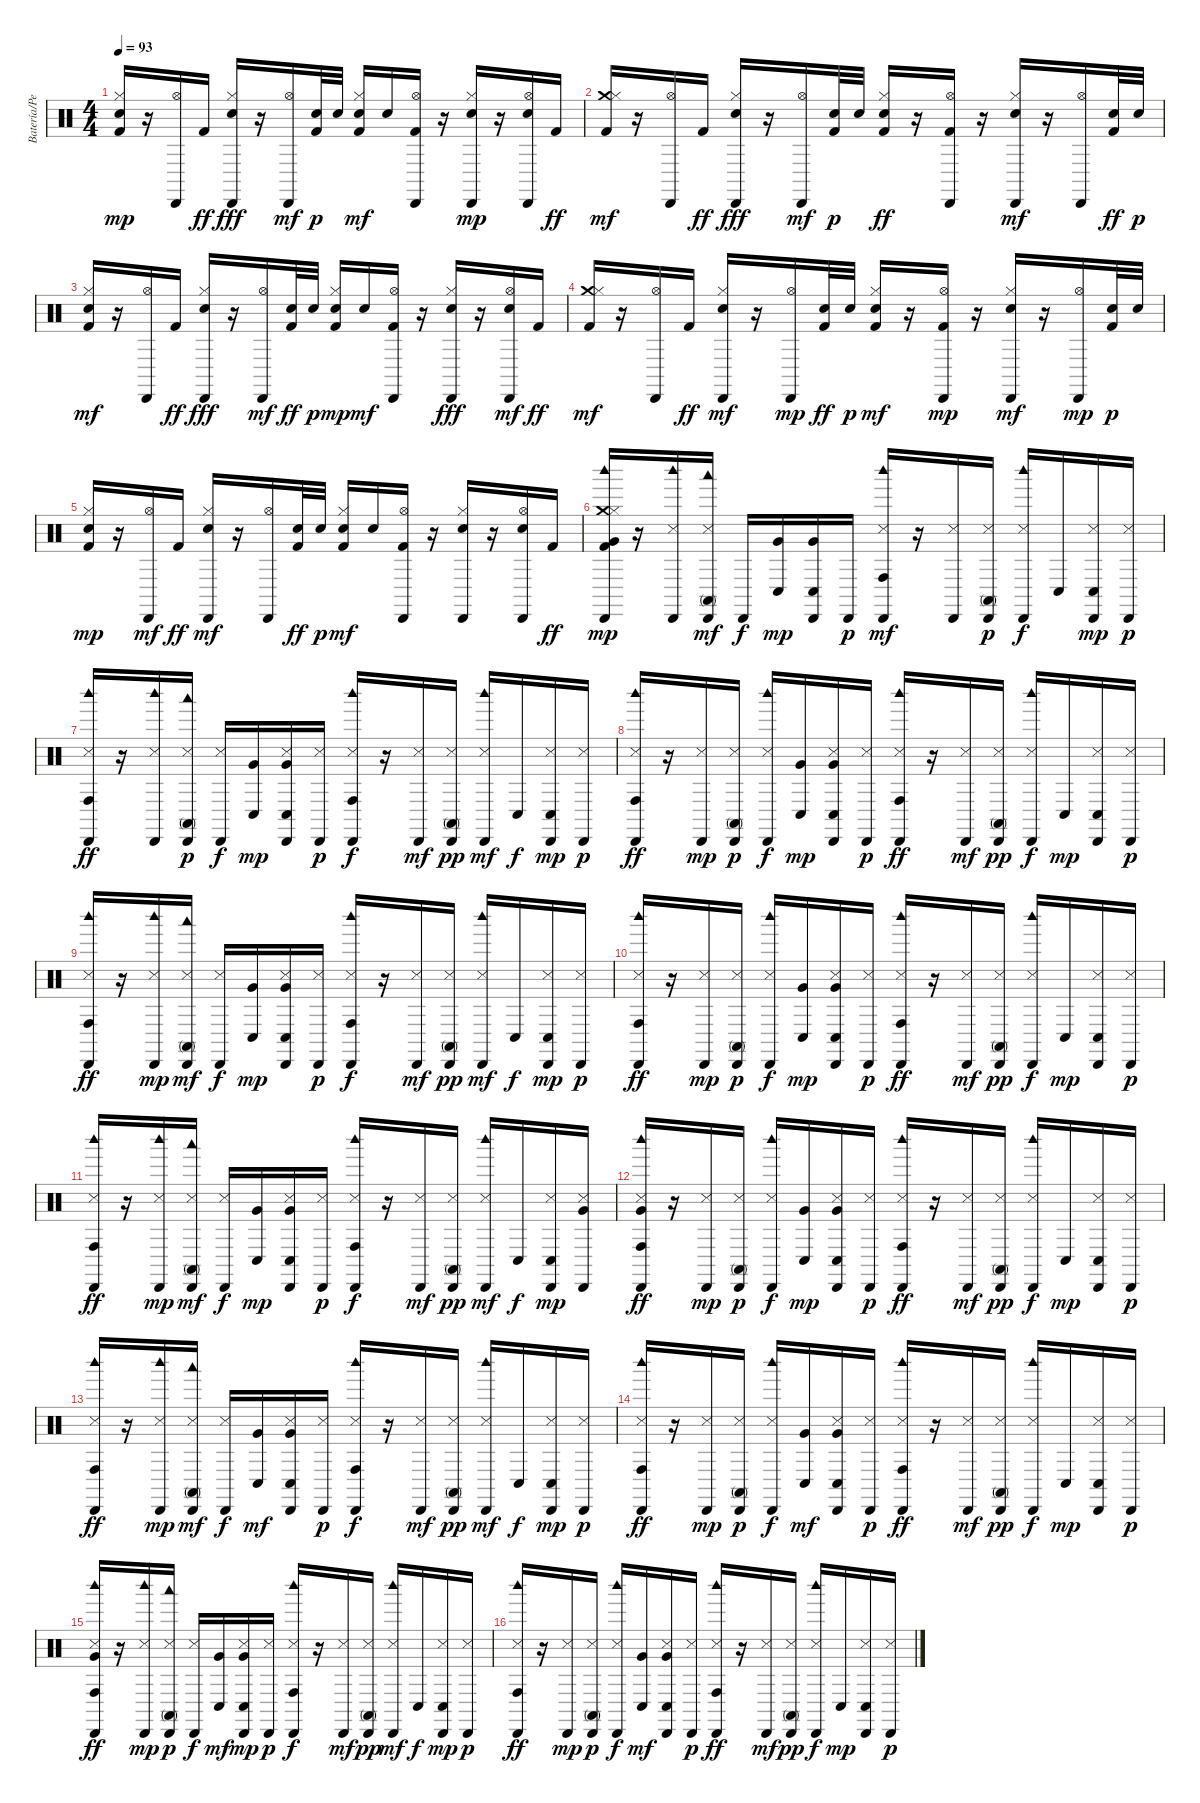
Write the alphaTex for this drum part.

\track ("Batería/Percusión" "Batería/Pe") {instrument percussion}
\staff {score}
\articulation defaults
\ts (4 4)
\tempo 93
\clef neutral
\ks c
("Hi-Hat (closed)" "Kick (hit) 2" "Electric Snare (hit)").16{dy mp} r.16 ("Hi-Hat (open)" "Cabasa (hit)").16 "Kick (hit) 2".16{dy ff} ("Cabasa (hit)" "Hi-Hat (closed)" "Electric Snare (hit)").16{dy fff} r.16 ("Cabasa (hit)" "Hi-Hat (open)").16{dy mf} ("Kick (hit) 2" "Electric Snare (hit)").32{dy p} "Electric Snare (hit)".32 ("Kick (hit) 2" "Electric Snare (hit)" "Hi-Hat (closed)").16{dy mf} "Electric Snare (hit)".16 ("Cabasa (hit)" "Kick (hit) 2" "Hi-Hat (open)").16 r.16 ("Electric Snare (hit)" "Hi-Hat (closed)" "Cabasa (hit)").16{dy mp} r.16 ("Electric Snare (hit)" "Cabasa (hit)" "Hi-Hat (open)").16 "Kick (hit) 2".16{dy ff} |
("Crash medium (hit)" "Kick (hit) 2" "Hi-Hat (closed)").16{dy mf} r.16 ("Hi-Hat (open)" "Cabasa (hit)").16 "Kick (hit) 2".16{dy ff} ("Hi-Hat (closed)" "Cabasa (hit)" "Electric Snare (hit)").16{dy fff} r.16 ("Cabasa (hit)" "Hi-Hat (open)").16{dy mf} ("Kick (hit) 2" "Electric Snare (hit)").32{dy p} "Electric Snare (hit)".32 ("Electric Snare (hit)" "Hi-Hat (closed)" "Kick (hit) 2").16{dy ff} r.16 ("Hi-Hat (open)" "Cabasa (hit)" "Kick (hit) 2").16 r.16 ("Electric Snare (hit)" "Cabasa (hit)" "Hi-Hat (closed)").16{dy mf} r.16 ("Hi-Hat (open)" "Cabasa (hit)").16 ("Electric Snare (hit)" "Kick (hit) 2").32{dy ff} "Electric Snare (hit)".32{dy p} |
("Kick (hit) 2" "Electric Snare (hit)" "Hi-Hat (closed)").16{dy mf} r.16 ("Hi-Hat (open)" "Cabasa (hit)").16 "Kick (hit) 2".16{dy ff} ("Cabasa (hit)" "Hi-Hat (closed)" "Electric Snare (hit)").16{dy fff} r.16 ("Cabasa (hit)" "Hi-Hat (open)").16{dy mf} ("Electric Snare (hit)" "Kick (hit) 2").32{dy ff} "Electric Snare (hit)".32{dy p} ("Kick (hit) 2" "Hi-Hat (closed)" "Electric Snare (hit)").16{dy mp} "Electric Snare (hit)".16{dy mf} ("Kick (hit) 2" "Cabasa (hit)" "Hi-Hat (open)").16 r.16 ("Cabasa (hit)" "Hi-Hat (closed)" "Electric Snare (hit)").16{dy fff} r.16 ("Electric Snare (hit)" "Hi-Hat (open)" "Cabasa (hit)").16{dy mf} "Kick (hit) 2".16{dy ff} |
("Kick (hit) 2" "Crash medium (hit)" "Hi-Hat (closed)").16{dy mf} r.16 ("Hi-Hat (open)" "Cabasa (hit)").16 "Kick (hit) 2".16{dy ff} ("Electric Snare (hit)" "Hi-Hat (closed)" "Cabasa (hit)").16{dy mf} r.16 ("Cabasa (hit)" "Hi-Hat (open)").16{dy mp} ("Electric Snare (hit)" "Kick (hit) 2").32{dy ff} "Electric Snare (hit)".32{dy p} ("Kick (hit) 2" "Electric Snare (hit)" "Hi-Hat (closed)").16{dy mf} r.16 ("Kick (hit) 2" "Cabasa (hit)" "Hi-Hat (open)").16{dy mp} r.16 ("Electric Snare (hit)" "Cabasa (hit)" "Hi-Hat (closed)").16{dy mf} r.16 ("Cabasa (hit)" "Hi-Hat (open)").16{dy mp} ("Kick (hit) 2" "Electric Snare (hit)").32{dy p} "Electric Snare (hit)".32 |
("Hi-Hat (closed)" "Kick (hit) 2" "Electric Snare (hit)").16{dy mp} r.16 ("Hi-Hat (open)" "Cabasa (hit)").16{dy mf} "Kick (hit) 2".16{dy ff} ("Cabasa (hit)" "Electric Snare (hit)" "Hi-Hat (closed)").16{dy mf} r.16 ("Hi-Hat (open)" "Cabasa (hit)").16 ("Electric Snare (hit)" "Kick (hit) 2").32{dy ff} "Electric Snare (hit)".32{dy p} ("Electric Snare (hit)" "Kick (hit) 2" "Hi-Hat (closed)").16{dy mf} "Electric Snare (hit)".16 ("Kick (hit) 2" "Hi-Hat (open)" "Cabasa (hit)").16 r.16 ("Electric Snare (hit)" "Hi-Hat (closed)" "Cabasa (hit)").16 r.16 ("Electric Snare (hit)" "Hi-Hat (open)" "Cabasa (hit)").16 "Kick (hit) 2".16{dy ff} |
("Cabasa (hit)" "Woodblock high (hit)" "Kick (hit) 2" "Crash medium (hit)" "Hi-Hat (closed)" "Very Low Tom (hit)").16{dy mp} r.16 ("Cabasa (hit)" "Woodblock high (hit)" "Snare (side stick) 3").16 ("Cabasa (hit)" "Woodblock low (hit)" "Snare (side stick) 3" "Conga high (mute)").16{dy mf} "Cabasa (hit)".16{dy f} ("Conga low (hit)" "Very Low Tom (hit)").16{dy mp} ("Cabasa (hit)" "Conga low (hit)" "Very Low Tom (hit)").16 "Cabasa (hit)".16{dy p} ("Woodblock high (hit)" "Cabasa (hit)" "Snare (side stick) 3" "Conga high (hit)").16{dy mf} r.16 ("Snare (side stick) 3" "Cabasa (hit)").16 ("Cabasa (hit)" "Snare (side stick) 3" "Conga high (mute)").16{dy p} ("Woodblock high (hit)" "Cabasa (hit)" "Snare (side stick) 3").16{dy f} "Conga low (hit)".16 ("Snare (side stick) 3" "Conga low (hit)" "Cabasa (hit)").16{dy mp} ("Snare (side stick) 3" "Cabasa (hit)").16{dy p} |
("Woodblock high (hit)" "Conga high (hit)" "Snare (side stick) 3" "Cabasa (hit)").16{dy ff} r.16 ("Snare (side stick) 3" "Cabasa (hit)" "Woodblock high (hit)").16 ("Woodblock low (hit)" "Snare (side stick) 3" "Cabasa (hit)" "Conga high (mute)").16{dy p} ("Cabasa (hit)" "Snare (side stick) 3").16{dy f} ("Very Low Tom (hit)" "Conga low (hit)").16{dy mp} ("Snare (side stick) 3" "Conga low (hit)" "Very Low Tom (hit)" "Cabasa (hit)").16 ("Cabasa (hit)" "Snare (side stick) 3").16{dy p} ("Woodblock high (hit)" "Snare (side stick) 3" "Conga high (hit)" "Cabasa (hit)").16{dy f} r.16 ("Cabasa (hit)" "Snare (side stick) 3").16{dy mf} ("Conga high (mute)" "Snare (side stick) 3" "Cabasa (hit)").16{dy pp} ("Woodblock high (hit)" "Cabasa (hit)" "Snare (side stick) 3").16{dy mf} "Conga low (hit)".16{dy f} ("Snare (side stick) 3" "Conga low (hit)" "Cabasa (hit)").16{dy mp} ("Snare (side stick) 3" "Cabasa (hit)").16{dy p} |
("Woodblock high (hit)" "Snare (side stick) 3" "Cabasa (hit)" "Conga high (hit)").16{dy ff} r.16 ("Snare (side stick) 3" "Cabasa (hit)").16{dy mp} ("Conga high (mute)" "Snare (side stick) 3" "Cabasa (hit)").16{dy p} ("Snare (side stick) 3" "Woodblock high (hit)" "Cabasa (hit)").16{dy f} ("Very Low Tom (hit)" "Conga low (hit)").16{dy mp} ("Conga low (hit)" "Cabasa (hit)" "Very Low Tom (hit)" "Snare (side stick) 3").16 ("Snare (side stick) 3" "Cabasa (hit)").16{dy p} ("Woodblock high (hit)" "Snare (side stick) 3" "Cabasa (hit)" "Conga high (hit)").16{dy ff} r.16 ("Snare (side stick) 3" "Cabasa (hit)").16{dy mf} ("Conga high (mute)" "Snare (side stick) 3" "Cabasa (hit)").16{dy pp} ("Cabasa (hit)" "Snare (side stick) 3" "Woodblock high (hit)").16{dy f} "Conga low (hit)".16{dy mp} ("Snare (side stick) 3" "Conga low (hit)" "Cabasa (hit)").16 ("Snare (side stick) 3" "Cabasa (hit)").16{dy p} |
("Snare (side stick) 3" "Woodblock high (hit)" "Cabasa (hit)" "Conga high (hit)").16{dy ff} r.16 ("Woodblock high (hit)" "Snare (side stick) 3" "Cabasa (hit)").16{dy mp} ("Snare (side stick) 3" "Conga high (mute)" "Cabasa (hit)" "Woodblock low (hit)").16{dy mf} ("Cabasa (hit)" "Snare (side stick) 3").16{dy f} ("Very Low Tom (hit)" "Conga low (hit)").16{dy mp} ("Conga low (hit)" "Snare (side stick) 3" "Cabasa (hit)" "Very Low Tom (hit)").16 ("Snare (side stick) 3" "Cabasa (hit)").16{dy p} ("Cabasa (hit)" "Snare (side stick) 3" "Conga high (hit)" "Woodblock high (hit)").16{dy f} r.16 ("Snare (side stick) 3" "Cabasa (hit)").16{dy mf} ("Cabasa (hit)" "Snare (side stick) 3" "Conga high (mute)").16{dy pp} ("Cabasa (hit)" "Woodblock high (hit)" "Snare (side stick) 3").16{dy mf} "Conga low (hit)".16{dy f} ("Conga low (hit)" "Snare (side stick) 3" "Cabasa (hit)").16{dy mp} ("Cabasa (hit)" "Snare (side stick) 3").16{dy p} |
("Snare (side stick) 3" "Cabasa (hit)" "Conga high (hit)" "Woodblock high (hit)").16{dy ff} r.16 ("Cabasa (hit)" "Snare (side stick) 3").16{dy mp} ("Conga high (mute)" "Snare (side stick) 3" "Cabasa (hit)").16{dy p} ("Cabasa (hit)" "Snare (side stick) 3" "Woodblock high (hit)").16{dy f} ("Conga low (hit)" "Very Low Tom (hit)").16{dy mp} ("Conga low (hit)" "Cabasa (hit)" "Very Low Tom (hit)" "Snare (side stick) 3").16 ("Cabasa (hit)" "Snare (side stick) 3").16{dy p} ("Cabasa (hit)" "Snare (side stick) 3" "Woodblock high (hit)" "Conga high (hit)").16{dy ff} r.16 ("Cabasa (hit)" "Snare (side stick) 3").16{dy mf} ("Cabasa (hit)" "Snare (side stick) 3" "Conga high (mute)").16{dy pp} ("Snare (side stick) 3" "Woodblock high (hit)" "Cabasa (hit)").16{dy f} "Conga low (hit)".16{dy mp} ("Snare (side stick) 3" "Cabasa (hit)" "Conga low (hit)").16 ("Cabasa (hit)" "Snare (side stick) 3").16{dy p} |
("Conga high (hit)" "Cabasa (hit)" "Woodblock high (hit)" "Snare (side stick) 3").16{dy ff} r.16 ("Cabasa (hit)" "Woodblock high (hit)" "Snare (side stick) 3").16{dy mp} ("Conga high (mute)" "Snare (side stick) 3" "Cabasa (hit)" "Woodblock low (hit)").16{dy mf} ("Snare (side stick) 3" "Cabasa (hit)").16{dy f} ("Conga low (hit)" "Very Low Tom (hit)").16{dy mp} ("Very Low Tom (hit)" "Snare (side stick) 3" "Cabasa (hit)" "Conga low (hit)").16 ("Snare (side stick) 3" "Cabasa (hit)").16{dy p} ("Cabasa (hit)" "Snare (side stick) 3" "Woodblock high (hit)" "Conga high (hit)").16{dy f} r.16 ("Snare (side stick) 3" "Cabasa (hit)").16{dy mf} ("Cabasa (hit)" "Conga high (mute)" "Snare (side stick) 3").16{dy pp} ("Cabasa (hit)" "Woodblock high (hit)" "Snare (side stick) 3").16{dy mf} "Conga low (hit)".16{dy f} ("Cabasa (hit)" "Snare (side stick) 3" "Conga low (hit)").16{dy mp} ("Snare (side stick) 3" "Cabasa (hit)" "Very Low Tom (hit)").16 |
("Woodblock high (hit)" "Very Low Tom (hit)" "Cabasa (hit)" "Snare (side stick) 3" "Conga high (hit)").16{dy ff} r.16 ("Cabasa (hit)" "Snare (side stick) 3").16{dy mp} ("Conga high (mute)" "Cabasa (hit)" "Snare (side stick) 3").16{dy p} ("Woodblock high (hit)" "Cabasa (hit)" "Snare (side stick) 3").16{dy f} ("Very Low Tom (hit)" "Conga low (hit)").16{dy mp} ("Cabasa (hit)" "Very Low Tom (hit)" "Conga low (hit)" "Snare (side stick) 3").16 ("Cabasa (hit)" "Snare (side stick) 3").16{dy p} ("Woodblock high (hit)" "Conga high (hit)" "Snare (side stick) 3" "Cabasa (hit)").16{dy ff} r.16 ("Cabasa (hit)" "Snare (side stick) 3").16{dy mf} ("Snare (side stick) 3" "Conga high (mute)" "Cabasa (hit)").16{dy pp} ("Cabasa (hit)" "Snare (side stick) 3" "Woodblock high (hit)").16{dy f} "Conga low (hit)".16{dy mp} ("Conga low (hit)" "Cabasa (hit)" "Snare (side stick) 3").16 ("Cabasa (hit)" "Snare (side stick) 3").16{dy p} |
("Cabasa (hit)" "Conga high (hit)" "Woodblock high (hit)" "Snare (side stick) 3").16{dy ff} r.16 ("Woodblock high (hit)" "Snare (side stick) 3" "Cabasa (hit)").16{dy mp} ("Snare (side stick) 3" "Conga high (mute)" "Cabasa (hit)" "Woodblock low (hit)").16{dy mf} ("Snare (side stick) 3" "Cabasa (hit)").16{dy f} ("Conga low (hit)" "Very Low Tom (hit)").16{dy mf} ("Snare (side stick) 3" "Conga low (hit)" "Cabasa (hit)" "Very Low Tom (hit)").16 ("Snare (side stick) 3" "Cabasa (hit)").16{dy p} ("Conga high (hit)" "Cabasa (hit)" "Woodblock high (hit)" "Snare (side stick) 3").16{dy f} r.16 ("Cabasa (hit)" "Snare (side stick) 3").16{dy mf} ("Cabasa (hit)" "Conga high (mute)" "Snare (side stick) 3").16{dy pp} ("Cabasa (hit)" "Snare (side stick) 3" "Woodblock high (hit)").16{dy mf} "Conga low (hit)".16{dy f} ("Conga low (hit)" "Snare (side stick) 3" "Cabasa (hit)").16{dy mp} ("Cabasa (hit)" "Snare (side stick) 3").16{dy p} |
("Cabasa (hit)" "Woodblock high (hit)" "Snare (side stick) 3" "Conga high (hit)").16{dy ff} r.16 ("Cabasa (hit)" "Snare (side stick) 3").16{dy mp} ("Cabasa (hit)" "Conga high (mute)" "Snare (side stick) 3").16{dy p} ("Woodblock high (hit)" "Cabasa (hit)" "Snare (side stick) 3").16{dy f} ("Conga low (hit)" "Very Low Tom (hit)").16{dy mf} ("Cabasa (hit)" "Very Low Tom (hit)" "Snare (side stick) 3" "Conga low (hit)").16 ("Snare (side stick) 3" "Cabasa (hit)").16{dy p} ("Woodblock high (hit)" "Cabasa (hit)" "Snare (side stick) 3" "Conga high (hit)").16{dy ff} r.16 ("Snare (side stick) 3" "Cabasa (hit)").16{dy mf} ("Snare (side stick) 3" "Conga high (mute)" "Cabasa (hit)").16{dy pp} ("Woodblock high (hit)" "Cabasa (hit)" "Snare (side stick) 3").16{dy f} "Conga low (hit)".16{dy mp} ("Snare (side stick) 3" "Cabasa (hit)" "Conga low (hit)").16 ("Cabasa (hit)" "Snare (side stick) 3").16{dy p} |
("Very Low Tom (hit)" "Cabasa (hit)" "Snare (side stick) 3" "Woodblock high (hit)" "Conga high (hit)").16{dy ff} r.16 ("Cabasa (hit)" "Woodblock high (hit)" "Snare (side stick) 3").16{dy mp} ("Conga high (mute)" "Cabasa (hit)" "Woodblock low (hit)" "Snare (side stick) 3").16{dy p} ("Cabasa (hit)" "Snare (side stick) 3").16{dy f} ("Conga low (hit)" "Very Low Tom (hit)").16{dy mf} ("Cabasa (hit)" "Very Low Tom (hit)" "Conga low (hit)" "Snare (side stick) 3").16{dy mp} ("Cabasa (hit)" "Snare (side stick) 3").16{dy p} ("Conga high (hit)" "Cabasa (hit)" "Snare (side stick) 3" "Woodblock high (hit)").16{dy f} r.16 ("Snare (side stick) 3" "Cabasa (hit)").16{dy mf} ("Cabasa (hit)" "Snare (side stick) 3" "Conga high (mute)").16{dy pp} ("Snare (side stick) 3" "Cabasa (hit)" "Woodblock high (hit)").16{dy mf} "Conga low (hit)".16{dy f} ("Conga low (hit)" "Cabasa (hit)" "Snare (side stick) 3").16{dy mp} ("Snare (side stick) 3" "Cabasa (hit)").16{dy p} |
("Conga high (hit)" "Cabasa (hit)" "Snare (side stick) 3" "Woodblock high (hit)").16{dy ff} r.16 ("Cabasa (hit)" "Snare (side stick) 3").16{dy mp} ("Snare (side stick) 3" "Cabasa (hit)" "Conga high (mute)").16{dy p} ("Snare (side stick) 3" "Woodblock high (hit)" "Cabasa (hit)").16{dy f} ("Very Low Tom (hit)" "Conga low (hit)").16{dy mf} ("Cabasa (hit)" "Snare (side stick) 3" "Very Low Tom (hit)" "Conga low (hit)").16 ("Snare (side stick) 3" "Cabasa (hit)").16{dy p} ("Cabasa (hit)" "Conga high (hit)" "Woodblock high (hit)" "Snare (side stick) 3").16{dy ff} r.16 ("Snare (side stick) 3" "Cabasa (hit)").16{dy mf} ("Conga high (mute)" "Cabasa (hit)" "Snare (side stick) 3").16{dy pp} ("Snare (side stick) 3" "Woodblock high (hit)" "Cabasa (hit)").16{dy f} "Conga low (hit)".16{dy mp} ("Snare (side stick) 3" "Cabasa (hit)" "Conga low (hit)").16 ("Cabasa (hit)" "Snare (side stick) 3").16{dy p}
